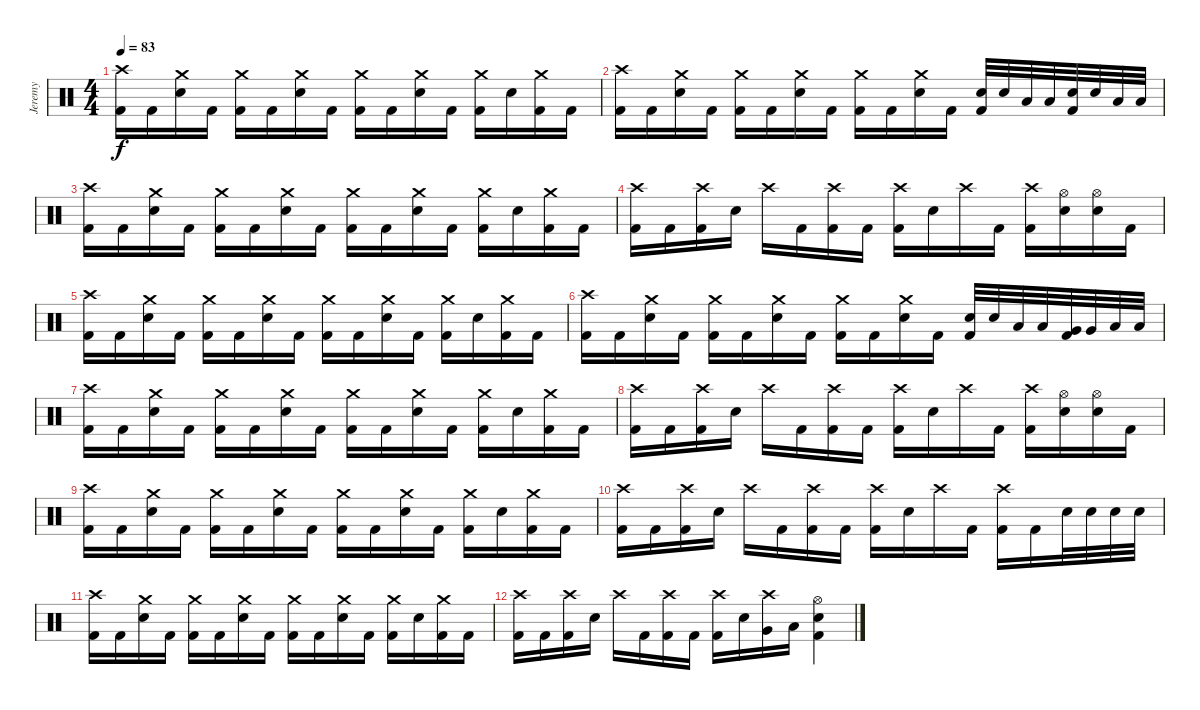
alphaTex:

\track ("Jeremy" "Jeremy") {instrument percussion}
\staff {score}
\articulation defaults
\ts (4 4)
\tempo 83
\clef neutral
\ks c
("Crash high (hit)" "Kick (hit) 2").16{dy f} "Kick (hit) 2".16 ("Crash medium (hit)" "Electric Snare (hit)").16 "Kick (hit) 2".16 ("Crash medium (hit)" "Kick (hit) 2").16 "Kick (hit) 2".16 ("Crash medium (hit)" "Electric Snare (hit)").16 "Kick (hit) 2".16 ("Crash medium (hit)" "Kick (hit) 2").16 "Kick (hit) 2".16 ("Crash medium (hit)" "Electric Snare (hit)").16 "Kick (hit) 2".16 ("Crash medium (hit)" "Kick (hit) 2").16 "Electric Snare (hit)".16 ("Crash medium (hit)" "Kick (hit) 2").16 "Kick (hit) 2".16 |
("Crash high (hit)" "Kick (hit) 2").16 "Kick (hit) 2".16 ("Crash medium (hit)" "Electric Snare (hit)").16 "Kick (hit) 2".16 ("Crash medium (hit)" "Kick (hit) 2").16 "Kick (hit) 2".16 ("Crash medium (hit)" "Electric Snare (hit)").16 "Kick (hit) 2".16 ("Crash medium (hit)" "Kick (hit) 2").16 "Kick (hit) 2".16 ("Crash medium (hit)" "Electric Snare (hit)").16 "Kick (hit) 2".16 ("Electric Snare (hit)" "Kick (hit) 2").32 "Electric Snare (hit)".32 "Low Tom (hit)".32 "Low Tom (hit)".32 ("Electric Snare (hit)" "Kick (hit) 2").32 "Electric Snare (hit)".32 "Low Tom (hit)".32 "Low Tom (hit)".32 |
("Crash high (hit)" "Kick (hit) 2").16 "Kick (hit) 2".16 ("Crash medium (hit)" "Electric Snare (hit)").16 "Kick (hit) 2".16 ("Crash medium (hit)" "Kick (hit) 2").16 "Kick (hit) 2".16 ("Crash medium (hit)" "Electric Snare (hit)").16 "Kick (hit) 2".16 ("Crash medium (hit)" "Kick (hit) 2").16 "Kick (hit) 2".16 ("Crash medium (hit)" "Electric Snare (hit)").16 "Kick (hit) 2".16 ("Crash medium (hit)" "Kick (hit) 2").16 "Electric Snare (hit)".16 ("Crash medium (hit)" "Kick (hit) 2").16 "Kick (hit) 2".16 |
("Crash high (hit)" "Kick (hit) 2").16 "Kick (hit) 2".16 ("Crash high (hit)" "Kick (hit) 2").16 "Electric Snare (hit)".16 "Crash high (hit)".16 "Kick (hit) 2".16 ("Crash high (hit)" "Kick (hit) 2").16 "Kick (hit) 2".16 ("Crash high (hit)" "Kick (hit) 2").16 "Electric Snare (hit)".16 "Crash high (hit)".16 "Kick (hit) 2".16 ("Crash high (hit)" "Kick (hit) 2").16 ("Hi-Hat (open)" "Electric Snare (hit)").16 ("Hi-Hat (open)" "Electric Snare (hit)").16 "Kick (hit) 2".16 |
("Crash high (hit)" "Kick (hit) 2").16 "Kick (hit) 2".16 ("Crash medium (hit)" "Electric Snare (hit)").16 "Kick (hit) 2".16 ("Crash medium (hit)" "Kick (hit) 2").16 "Kick (hit) 2".16 ("Crash medium (hit)" "Electric Snare (hit)").16 "Kick (hit) 2".16 ("Crash medium (hit)" "Kick (hit) 2").16 "Kick (hit) 2".16 ("Crash medium (hit)" "Electric Snare (hit)").16 "Kick (hit) 2".16 ("Crash medium (hit)" "Kick (hit) 2").16 "Electric Snare (hit)".16 ("Crash medium (hit)" "Kick (hit) 2").16 "Kick (hit) 2".16 |
("Crash high (hit)" "Kick (hit) 2").16 "Kick (hit) 2".16 ("Crash medium (hit)" "Electric Snare (hit)").16 "Kick (hit) 2".16 ("Crash medium (hit)" "Kick (hit) 2").16 "Kick (hit) 2".16 ("Crash medium (hit)" "Electric Snare (hit)").16 "Kick (hit) 2".16 ("Crash medium (hit)" "Kick (hit) 2").16 "Kick (hit) 2".16 ("Crash medium (hit)" "Electric Snare (hit)").16 "Kick (hit) 2".16 ("Electric Snare (hit)" "Kick (hit) 2").32 "Electric Snare (hit)".32 "Low Tom (hit)".32 "Low Tom (hit)".32 ("Very Low Tom (hit)" "Kick (hit) 2").32 "Very Low Tom (hit)".32 "Low Floor Tom (hit)".32 "Low Floor Tom (hit)".32 |
("Crash high (hit)" "Kick (hit) 2").16 "Kick (hit) 2".16 ("Crash medium (hit)" "Electric Snare (hit)").16 "Kick (hit) 2".16 ("Crash medium (hit)" "Kick (hit) 2").16 "Kick (hit) 2".16 ("Crash medium (hit)" "Electric Snare (hit)").16 "Kick (hit) 2".16 ("Crash medium (hit)" "Kick (hit) 2").16 "Kick (hit) 2".16 ("Crash medium (hit)" "Electric Snare (hit)").16 "Kick (hit) 2".16 ("Crash medium (hit)" "Kick (hit) 2").16 "Electric Snare (hit)".16 ("Crash medium (hit)" "Kick (hit) 2").16 "Kick (hit) 2".16 |
("Crash high (hit)" "Kick (hit) 2").16 "Kick (hit) 2".16 ("Crash high (hit)" "Kick (hit) 2").16 "Electric Snare (hit)".16 "Crash high (hit)".16 "Kick (hit) 2".16 ("Crash high (hit)" "Kick (hit) 2").16 "Kick (hit) 2".16 ("Crash high (hit)" "Kick (hit) 2").16 "Electric Snare (hit)".16 "Crash high (hit)".16 "Kick (hit) 2".16 ("Crash high (hit)" "Kick (hit) 2").16 ("Hi-Hat (open)" "Electric Snare (hit)").16 ("Hi-Hat (open)" "Electric Snare (hit)").16 "Kick (hit) 2".16 |
("Crash high (hit)" "Kick (hit) 2").16 "Kick (hit) 2".16 ("Crash medium (hit)" "Electric Snare (hit)").16 "Kick (hit) 2".16 ("Crash medium (hit)" "Kick (hit) 2").16 "Kick (hit) 2".16 ("Crash medium (hit)" "Electric Snare (hit)").16 "Kick (hit) 2".16 ("Crash medium (hit)" "Kick (hit) 2").16 "Kick (hit) 2".16 ("Crash medium (hit)" "Electric Snare (hit)").16 "Kick (hit) 2".16 ("Crash medium (hit)" "Kick (hit) 2").16 "Electric Snare (hit)".16 ("Crash medium (hit)" "Kick (hit) 2").16 "Kick (hit) 2".16 |
("Crash high (hit)" "Kick (hit) 2").16 "Kick (hit) 2".16 ("Crash high (hit)" "Kick (hit) 2").16 "Electric Snare (hit)".16 "Crash high (hit)".16 "Kick (hit) 2".16 ("Crash high (hit)" "Kick (hit) 2").16 "Kick (hit) 2".16 ("Crash high (hit)" "Kick (hit) 2").16 "Electric Snare (hit)".16 "Crash high (hit)".16 "Kick (hit) 2".16 ("Crash high (hit)" "Kick (hit) 2").16 "Kick (hit) 2".16 "Electric Snare (hit)".32 "Electric Snare (hit)".32 "Electric Snare (hit)".32 "Electric Snare (hit)".32 |
("Crash high (hit)" "Kick (hit) 2").16 "Kick (hit) 2".16 ("Crash medium (hit)" "Electric Snare (hit)").16 "Kick (hit) 2".16 ("Crash medium (hit)" "Kick (hit) 2").16 "Kick (hit) 2".16 ("Crash medium (hit)" "Electric Snare (hit)").16 "Kick (hit) 2".16 ("Crash medium (hit)" "Kick (hit) 2").16 "Kick (hit) 2".16 ("Crash medium (hit)" "Electric Snare (hit)").16 "Kick (hit) 2".16 ("Crash medium (hit)" "Kick (hit) 2").16 "Electric Snare (hit)".16 ("Crash medium (hit)" "Kick (hit) 2").16 "Kick (hit) 2".16 |
("Crash high (hit)" "Kick (hit) 2").16 "Kick (hit) 2".16 ("Crash high (hit)" "Kick (hit) 2").16 "Electric Snare (hit)".16 "Crash high (hit)".16 "Kick (hit) 2".16 ("Crash high (hit)" "Kick (hit) 2").16 "Kick (hit) 2".16 ("Crash high (hit)" "Kick (hit) 2").16 "Electric Snare (hit)".16 ("Crash high (hit)" "Very Low Tom (hit)").16 "Low Floor Tom (hit)".16 ("Hi-Hat (open)" "Electric Snare (hit)" "Kick (hit) 2").4
